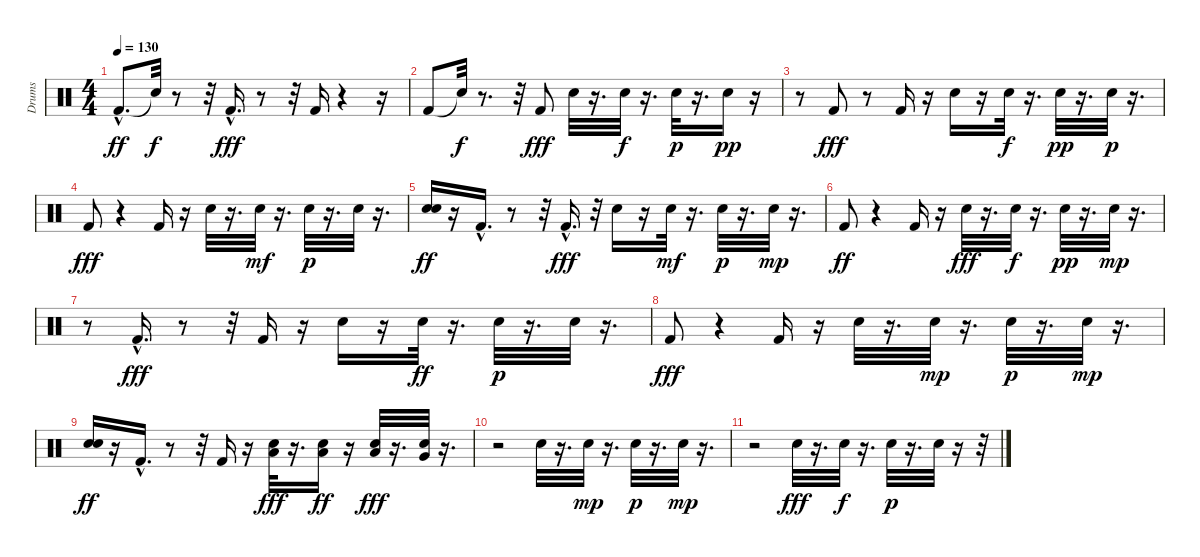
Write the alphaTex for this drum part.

\track ("Drums" "Drums") {instrument percussion}
\staff {score}
\articulation defaults
\ts (4 4)
\tempo 130
\clef neutral
\ks c "Kick (hit) 2"{hac}.8{d dy ff} "Snare (hit)"{t}.32{dy f}
r.8 r.32 "Kick (hit) 2"{hac}.16{d dy fff} r.8 r.32 "Kick (hit) 2".16 r.4 r.16 |
"Kick (hit) 2".8 "Snare (hit)"{t}.32{dy f} r.8{d} r.32 "Kick (hit) 2".8{dy fff} "Hand Clap (hit)".32 r.16{d} "Hand Clap (hit)".32{dy f} r.16{d} "Hand Clap (hit)".32{dy p} r.16{d} "Hand Clap (hit)".16{dy pp} r.16 |
r.8 "Kick (hit) 2".8{dy fff} r.8 "Kick (hit) 2".16 r.16 "Hand Clap (hit)".16 r.16 "Hand Clap (hit)".32{dy f} r.16{d} "Hand Clap (hit)".32{dy pp} r.16{d} "Hand Clap (hit)".32{dy p} r.16{d} |
"Kick (hit) 2".8{dy fff} r.4 "Kick (hit) 2".16 r.16 "Hand Clap (hit)".32 r.16{d} "Hand Clap (hit)".32{dy mf} r.16{d} "Hand Clap (hit)".32{dy p} r.16{d} "Hand Clap (hit)".32 r.16{d} |
("Hand Clap (hit)" "Snare (hit) 2").16{dy ff} r.16 "Kick (hit) 2"{hac}.16{d} r.8 r.32 "Kick (hit) 2"{hac}.16{d dy fff} r.32 "Hand Clap (hit)".16 r.16 "Hand Clap (hit)".32{dy mf} r.16{d} "Hand Clap (hit)".32{dy p} r.16{d} "Hand Clap (hit)".32{dy mp} r.16{d} |
"Kick (hit) 2".8{dy ff} r.4 "Kick (hit) 2".16 r.16 "Hand Clap (hit)".32{dy fff} r.16{d} "Hand Clap (hit)".32{dy f} r.16{d} "Hand Clap (hit)".32{dy pp} r.16{d} "Hand Clap (hit)".32{dy mp} r.16{d} |
r.8 "Kick (hit) 2"{hac}.16{d dy fff} r.8 r.32 "Kick (hit) 2".16 r.16 "Hand Clap (hit)".16 r.16 "Hand Clap (hit)".32{dy ff} r.16{d} "Hand Clap (hit)".32{dy p} r.16{d} "Hand Clap (hit)".32 r.16{d} |
"Kick (hit) 2".8{dy fff} r.4 "Kick (hit) 2".16 r.16 "Hand Clap (hit)".32 r.16{d} "Hand Clap (hit)".32{dy mp} r.16{d} "Hand Clap (hit)".32{dy p} r.16{d} "Hand Clap (hit)".32{dy mp} r.16{d} |
("Hand Clap (hit)" "Snare (hit) 2").16{dy ff} r.16 "Kick (hit) 2"{hac}.16{d} r.8 r.32 "Kick (hit) 2".16 r.16 ("Hand Clap (hit)" "Low Tom (hit)").32{dy fff} r.16{d} ("Hand Clap (hit)" "Low Tom (hit)").16{dy ff} r.16 ("Hand Clap (hit)" "Low Tom (hit)").32{dy fff} r.16{d} ("Hand Clap (hit)" "Very Low Tom (hit)").32 r.16{d} |
r.2 "Hand Clap (hit)".32 r.16{d} "Hand Clap (hit)".32{dy mp} r.16{d} "Hand Clap (hit)".32{dy p} r.16{d} "Hand Clap (hit)".32{dy mp} r.16{d} |
r.2 "Hand Clap (hit)".32{dy fff} r.16{d} "Hand Clap (hit)".32{dy f} r.16{d} "Hand Clap (hit)".32{dy p} r.16{d} "Hand Clap (hit)".32 r.16 r.32
